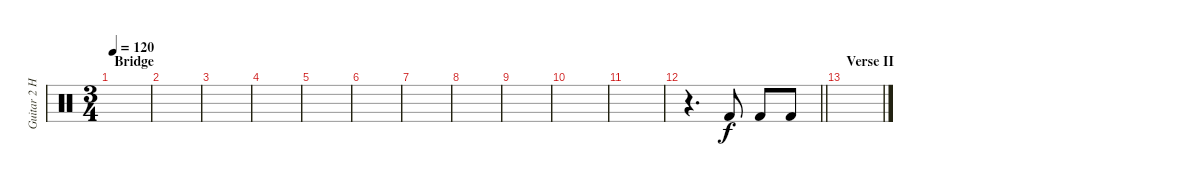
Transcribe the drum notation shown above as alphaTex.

\track ("Guitar 2 Hit" "Guitar 2 H") {instrument percussion}
\staff {score}
\articulation defaults
\ts (3 4)
\section ("" "Bridge")
\tempo 120
\clef neutral
\ks c
|
|
|
|
|
|
|
|
|
|
|
\barLineRight lightlight
r.4{d} "Kick (hit) 2".8 "Kick (hit) 2".8 "Kick (hit) 2".8 |
\section ("" "Verse II")
